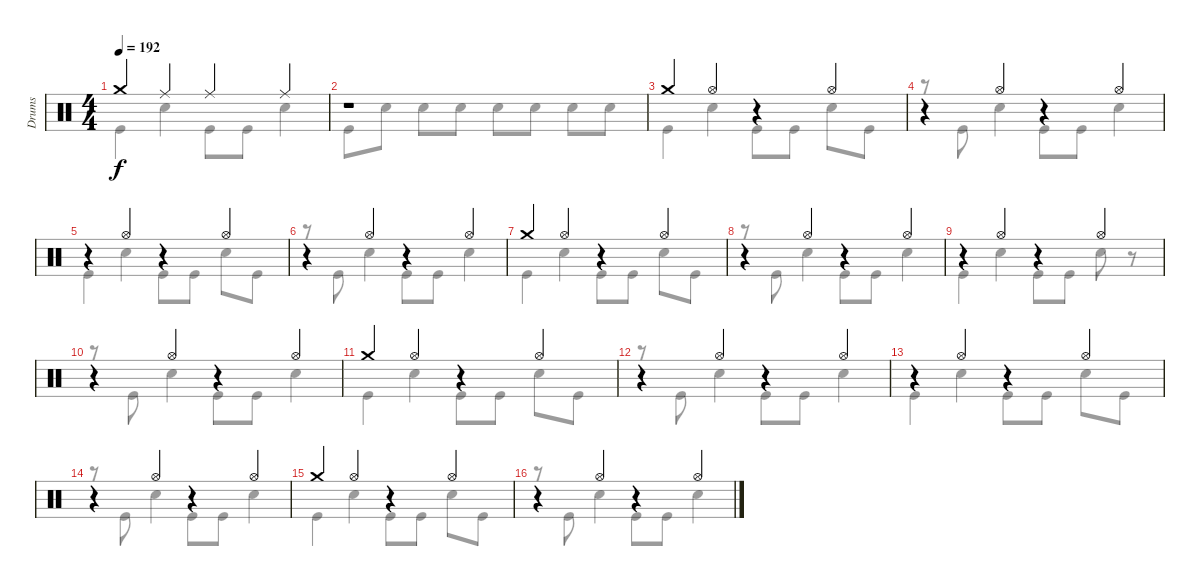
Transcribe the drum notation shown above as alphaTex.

\track ("Drums" "Drums") {instrument percussion}
\staff {score}
\articulation defaults
\voice
\ts (4 4)
\tempo 192
\clef neutral
\ks c "Crash medium (hit)".4{dy f} "Ride (middle)".4 "Ride (middle)".4 "Ride (middle)".4
|
r.1 |
"Crash medium (hit)".4 "Hi-Hat (open)".4 r.4 "Hi-Hat (open)".4 |
r.4 "Hi-Hat (open)".4 r.4 "Hi-Hat (open)".4 |
r.4 "Hi-Hat (open)".4 r.4 "Hi-Hat (open)".4 |
r.4 "Hi-Hat (open)".4 r.4 "Hi-Hat (open)".4 |
"Crash medium (hit)".4 "Hi-Hat (open)".4 r.4 "Hi-Hat (open)".4 |
r.4 "Hi-Hat (open)".4 r.4 "Hi-Hat (open)".4 |
r.4 "Hi-Hat (open)".4 r.4 "Hi-Hat (open)".4 |
r.4 "Hi-Hat (open)".4 r.4 "Hi-Hat (open)".4 |
"Crash medium (hit)".4 "Hi-Hat (open)".4 r.4 "Hi-Hat (open)".4 |
r.4 "Hi-Hat (open)".4 r.4 "Hi-Hat (open)".4 |
r.4 "Hi-Hat (open)".4 r.4 "Hi-Hat (open)".4 |
r.4 "Hi-Hat (open)".4 r.4 "Hi-Hat (open)".4 |
"Crash medium (hit)".4 "Hi-Hat (open)".4 r.4 "Hi-Hat (open)".4 |
r.4 "Hi-Hat (open)".4 r.4 "Hi-Hat (open)".4
\voice
\clef neutral
\ottava regular
\simile none
\ks c "Kick (hit)".4{dy f} "Snare (hit) 2".4 "Kick (hit)".8 "Kick (hit)".8 "Snare (hit) 2".4
|
"Kick (hit)".8 "Snare (hit) 2".8 "Snare (hit) 2".8 "Snare (hit) 2".8 "Snare (hit) 2".8 "Snare (hit) 2".8 "Snare (hit) 2".8 "Snare (hit) 2".8 |
"Kick (hit)".4 "Snare (hit) 2".4 "Kick (hit)".8 "Kick (hit)".8 "Snare (hit) 2".8 "Kick (hit)".8 |
r.8 "Kick (hit)".8 "Snare (hit) 2".4 "Kick (hit)".8 "Kick (hit)".8 "Snare (hit) 2".4 |
"Kick (hit)".4 "Snare (hit) 2".4 "Kick (hit)".8 "Kick (hit)".8 "Snare (hit) 2".8 "Kick (hit)".8 |
r.8 "Kick (hit)".8 "Snare (hit) 2".4 "Kick (hit)".8 "Kick (hit)".8 "Snare (hit) 2".4 |
"Kick (hit)".4 "Snare (hit) 2".4 "Kick (hit)".8 "Kick (hit)".8 "Snare (hit) 2".8 "Kick (hit)".8 |
r.8 "Kick (hit)".8 "Snare (hit) 2".4 "Kick (hit)".8 "Kick (hit)".8 "Snare (hit) 2".4 |
"Kick (hit)".4 "Snare (hit) 2".4 "Kick (hit)".8 "Kick (hit)".8 "Snare (hit) 2".8 r.8 |
r.8 "Kick (hit)".8 "Snare (hit) 2".4 "Kick (hit)".8 "Kick (hit)".8 "Snare (hit) 2".4 |
"Kick (hit)".4 "Snare (hit) 2".4 "Kick (hit)".8 "Kick (hit)".8 "Snare (hit) 2".8 "Kick (hit)".8 |
r.8 "Kick (hit)".8 "Snare (hit) 2".4 "Kick (hit)".8 "Kick (hit)".8 "Snare (hit) 2".4 |
"Kick (hit)".4 "Snare (hit) 2".4 "Kick (hit)".8 "Kick (hit)".8 "Snare (hit) 2".8 "Kick (hit)".8 |
r.8 "Kick (hit)".8 "Snare (hit) 2".4 "Kick (hit)".8 "Kick (hit)".8 "Snare (hit) 2".4 |
"Kick (hit)".4 "Snare (hit) 2".4 "Kick (hit)".8 "Kick (hit)".8 "Snare (hit) 2".8 "Kick (hit)".8 |
r.8 "Kick (hit)".8 "Snare (hit) 2".4 "Kick (hit)".8 "Kick (hit)".8 "Snare (hit) 2".4
